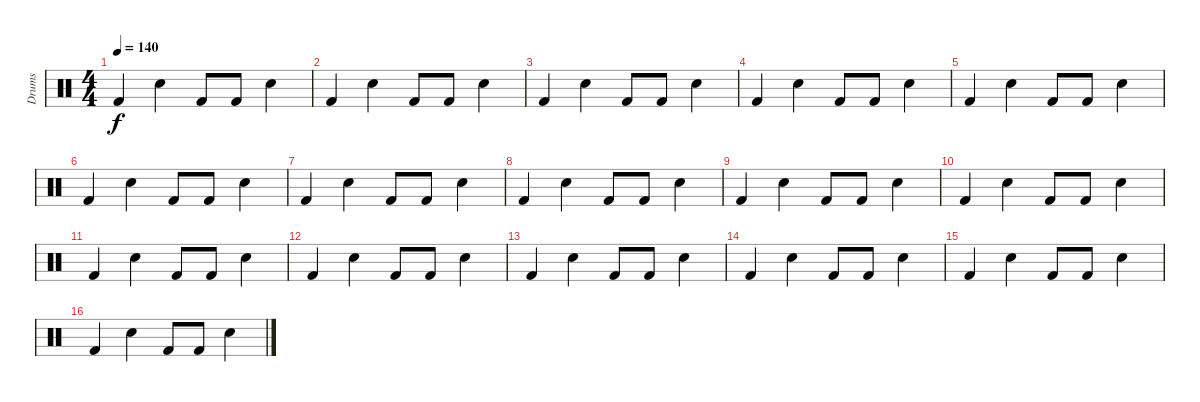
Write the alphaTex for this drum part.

\track ("Drums" "Drums") {instrument percussion}
\staff {score}
\articulation defaults
\ts (4 4)
\tempo 140
\clef neutral
\ks c "Kick (hit) 2".4{dy f} "Snare (hit) 2".4 "Kick (hit) 2".8 "Kick (hit) 2".8 "Snare (hit) 2".4
|
"Kick (hit) 2".4 "Snare (hit) 2".4 "Kick (hit) 2".8 "Kick (hit) 2".8 "Snare (hit) 2".4 |
"Kick (hit) 2".4 "Snare (hit) 2".4 "Kick (hit) 2".8 "Kick (hit) 2".8 "Snare (hit) 2".4 |
"Kick (hit) 2".4 "Snare (hit) 2".4 "Kick (hit) 2".8 "Kick (hit) 2".8 "Snare (hit) 2".4 |
"Kick (hit) 2".4 "Snare (hit) 2".4 "Kick (hit) 2".8 "Kick (hit) 2".8 "Snare (hit) 2".4 |
"Kick (hit) 2".4 "Snare (hit) 2".4 "Kick (hit) 2".8 "Kick (hit) 2".8 "Snare (hit) 2".4 |
"Kick (hit) 2".4 "Snare (hit) 2".4 "Kick (hit) 2".8 "Kick (hit) 2".8 "Snare (hit) 2".4 |
"Kick (hit) 2".4 "Snare (hit) 2".4 "Kick (hit) 2".8 "Kick (hit) 2".8 "Snare (hit) 2".4 |
"Kick (hit) 2".4 "Snare (hit) 2".4 "Kick (hit) 2".8 "Kick (hit) 2".8 "Snare (hit) 2".4 |
"Kick (hit) 2".4 "Snare (hit) 2".4 "Kick (hit) 2".8 "Kick (hit) 2".8 "Snare (hit) 2".4 |
"Kick (hit) 2".4 "Snare (hit) 2".4 "Kick (hit) 2".8 "Kick (hit) 2".8 "Snare (hit) 2".4 |
"Kick (hit) 2".4 "Snare (hit) 2".4 "Kick (hit) 2".8 "Kick (hit) 2".8 "Snare (hit) 2".4 |
"Kick (hit) 2".4 "Snare (hit) 2".4 "Kick (hit) 2".8 "Kick (hit) 2".8 "Snare (hit) 2".4 |
"Kick (hit) 2".4 "Snare (hit) 2".4 "Kick (hit) 2".8 "Kick (hit) 2".8 "Snare (hit) 2".4 |
"Kick (hit) 2".4 "Snare (hit) 2".4 "Kick (hit) 2".8 "Kick (hit) 2".8 "Snare (hit) 2".4 |
"Kick (hit) 2".4 "Snare (hit) 2".4 "Kick (hit) 2".8 "Kick (hit) 2".8 "Snare (hit) 2".4
